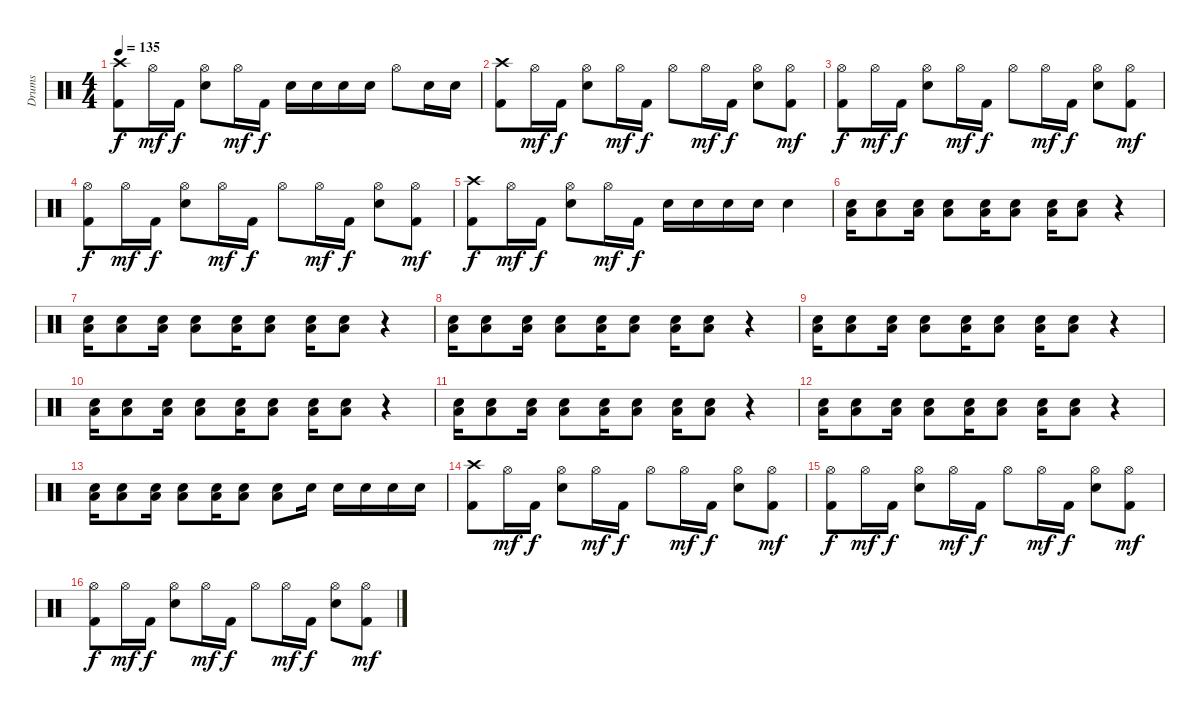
\track ("Drums" "Drums") {instrument percussion}
\staff {score}
\articulation defaults
\ts (4 4)
\tempo 135
\clef neutral
\ks c
("Crash high (hit)" "Kick (hit) 2").8{dy f} "Hi-Hat (open)".16{dy mf} "Kick (hit) 2".16{dy f} ("Hi-Hat (open)" "Electric Snare (hit)").8 "Hi-Hat (open)".16{dy mf} "Kick (hit) 2".16{dy f} "Electric Snare (hit)".16 "Electric Snare (hit)".16 "Electric Snare (hit)".16 "Electric Snare (hit)".16 "Hi-Hat (open)".8 "Electric Snare (hit)".16 "Electric Snare (hit)".16 |
("Crash high (hit)" "Kick (hit) 2").8 "Hi-Hat (open)".16{dy mf} "Kick (hit) 2".16{dy f} ("Hi-Hat (open)" "Electric Snare (hit)").8 "Hi-Hat (open)".16{dy mf} "Kick (hit) 2".16{dy f} "Hi-Hat (open)".8 "Hi-Hat (open)".16{dy mf} "Kick (hit) 2".16{dy f} ("Hi-Hat (open)" "Electric Snare (hit)").8 ("Hi-Hat (open)" "Kick (hit) 2").8{dy mf} |
("Hi-Hat (open)" "Kick (hit) 2").8{dy f} "Hi-Hat (open)".16{dy mf} "Kick (hit) 2".16{dy f} ("Hi-Hat (open)" "Electric Snare (hit)").8 "Hi-Hat (open)".16{dy mf} "Kick (hit) 2".16{dy f} "Hi-Hat (open)".8 "Hi-Hat (open)".16{dy mf} "Kick (hit) 2".16{dy f} ("Hi-Hat (open)" "Electric Snare (hit)").8 ("Hi-Hat (open)" "Kick (hit) 2").8{dy mf} |
("Hi-Hat (open)" "Kick (hit) 2").8{dy f} "Hi-Hat (open)".16{dy mf} "Kick (hit) 2".16{dy f} ("Hi-Hat (open)" "Electric Snare (hit)").8 "Hi-Hat (open)".16{dy mf} "Kick (hit) 2".16{dy f} "Hi-Hat (open)".8 "Hi-Hat (open)".16{dy mf} "Kick (hit) 2".16{dy f} ("Hi-Hat (open)" "Electric Snare (hit)").8 ("Hi-Hat (open)" "Kick (hit) 2").8{dy mf} |
("Crash high (hit)" "Kick (hit) 2").8{dy f} "Hi-Hat (open)".16{dy mf} "Kick (hit) 2".16{dy f} ("Hi-Hat (open)" "Electric Snare (hit)").8 "Hi-Hat (open)".16{dy mf} "Kick (hit) 2".16{dy f} "Electric Snare (hit)".16 "Electric Snare (hit)".16 "Electric Snare (hit)".16 "Electric Snare (hit)".16 "Electric Snare (hit)".4 |
("Electric Snare (hit)" "Low Floor Tom (hit)").16 ("Electric Snare (hit)" "Low Floor Tom (hit)").8 ("Electric Snare (hit)" "Low Floor Tom (hit)").16 ("Electric Snare (hit)" "Low Floor Tom (hit)").8 ("Electric Snare (hit)" "Low Floor Tom (hit)").16 ("Electric Snare (hit)" "Low Floor Tom (hit)").8 ("Electric Snare (hit)" "Low Floor Tom (hit)").16 ("Electric Snare (hit)" "Low Floor Tom (hit)").8 r.4 |
("Electric Snare (hit)" "Low Floor Tom (hit)").16 ("Electric Snare (hit)" "Low Floor Tom (hit)").8 ("Electric Snare (hit)" "Low Floor Tom (hit)").16 ("Electric Snare (hit)" "Low Floor Tom (hit)").8 ("Electric Snare (hit)" "Low Floor Tom (hit)").16 ("Electric Snare (hit)" "Low Floor Tom (hit)").8 ("Electric Snare (hit)" "Low Floor Tom (hit)").16 ("Electric Snare (hit)" "Low Floor Tom (hit)").8 r.4 |
("Electric Snare (hit)" "Low Floor Tom (hit)").16 ("Electric Snare (hit)" "Low Floor Tom (hit)").8 ("Electric Snare (hit)" "Low Floor Tom (hit)").16 ("Electric Snare (hit)" "Low Floor Tom (hit)").8 ("Electric Snare (hit)" "Low Floor Tom (hit)").16 ("Electric Snare (hit)" "Low Floor Tom (hit)").8 ("Electric Snare (hit)" "Low Floor Tom (hit)").16 ("Electric Snare (hit)" "Low Floor Tom (hit)").8 r.4 |
("Electric Snare (hit)" "Low Floor Tom (hit)").16 ("Electric Snare (hit)" "Low Floor Tom (hit)").8 ("Electric Snare (hit)" "Low Floor Tom (hit)").16 ("Electric Snare (hit)" "Low Floor Tom (hit)").8 ("Electric Snare (hit)" "Low Floor Tom (hit)").16 ("Electric Snare (hit)" "Low Floor Tom (hit)").8 ("Electric Snare (hit)" "Low Floor Tom (hit)").16 ("Electric Snare (hit)" "Low Floor Tom (hit)").8 r.4 |
("Electric Snare (hit)" "Low Floor Tom (hit)").16 ("Electric Snare (hit)" "Low Floor Tom (hit)").8 ("Electric Snare (hit)" "Low Floor Tom (hit)").16 ("Electric Snare (hit)" "Low Floor Tom (hit)").8 ("Electric Snare (hit)" "Low Floor Tom (hit)").16 ("Electric Snare (hit)" "Low Floor Tom (hit)").8 ("Electric Snare (hit)" "Low Floor Tom (hit)").16 ("Electric Snare (hit)" "Low Floor Tom (hit)").8 r.4 |
("Electric Snare (hit)" "Low Floor Tom (hit)").16 ("Electric Snare (hit)" "Low Floor Tom (hit)").8 ("Electric Snare (hit)" "Low Floor Tom (hit)").16 ("Electric Snare (hit)" "Low Floor Tom (hit)").8 ("Electric Snare (hit)" "Low Floor Tom (hit)").16 ("Electric Snare (hit)" "Low Floor Tom (hit)").8 ("Electric Snare (hit)" "Low Floor Tom (hit)").16 ("Electric Snare (hit)" "Low Floor Tom (hit)").8 r.4 |
("Electric Snare (hit)" "Low Floor Tom (hit)").16 ("Electric Snare (hit)" "Low Floor Tom (hit)").8 ("Electric Snare (hit)" "Low Floor Tom (hit)").16 ("Electric Snare (hit)" "Low Floor Tom (hit)").8 ("Electric Snare (hit)" "Low Floor Tom (hit)").16 ("Electric Snare (hit)" "Low Floor Tom (hit)").8 ("Electric Snare (hit)" "Low Floor Tom (hit)").16 ("Electric Snare (hit)" "Low Floor Tom (hit)").8 r.4 |
("Electric Snare (hit)" "Low Floor Tom (hit)").16 ("Electric Snare (hit)" "Low Floor Tom (hit)").8 ("Electric Snare (hit)" "Low Floor Tom (hit)").16 ("Electric Snare (hit)" "Low Floor Tom (hit)").8 ("Electric Snare (hit)" "Low Floor Tom (hit)").16 ("Electric Snare (hit)" "Low Floor Tom (hit)").8 ("Electric Snare (hit)" "Low Floor Tom (hit)").8 "Electric Snare (hit)".16 "Electric Snare (hit)".16 "Electric Snare (hit)".16 "Electric Snare (hit)".16 "Electric Snare (hit)".16 |
("Crash high (hit)" "Kick (hit) 2").8 "Hi-Hat (open)".16{dy mf} "Kick (hit) 2".16{dy f} ("Hi-Hat (open)" "Electric Snare (hit)").8 "Hi-Hat (open)".16{dy mf} "Kick (hit) 2".16{dy f} "Hi-Hat (open)".8 "Hi-Hat (open)".16{dy mf} "Kick (hit) 2".16{dy f} ("Hi-Hat (open)" "Electric Snare (hit)").8 ("Hi-Hat (open)" "Kick (hit) 2").8{dy mf} |
("Hi-Hat (open)" "Kick (hit) 2").8{dy f} "Hi-Hat (open)".16{dy mf} "Kick (hit) 2".16{dy f} ("Hi-Hat (open)" "Electric Snare (hit)").8 "Hi-Hat (open)".16{dy mf} "Kick (hit) 2".16{dy f} "Hi-Hat (open)".8 "Hi-Hat (open)".16{dy mf} "Kick (hit) 2".16{dy f} ("Hi-Hat (open)" "Electric Snare (hit)").8 ("Hi-Hat (open)" "Kick (hit) 2").8{dy mf} |
("Hi-Hat (open)" "Kick (hit) 2").8{dy f} "Hi-Hat (open)".16{dy mf} "Kick (hit) 2".16{dy f} ("Hi-Hat (open)" "Electric Snare (hit)").8 "Hi-Hat (open)".16{dy mf} "Kick (hit) 2".16{dy f} "Hi-Hat (open)".8 "Hi-Hat (open)".16{dy mf} "Kick (hit) 2".16{dy f} ("Hi-Hat (open)" "Electric Snare (hit)").8 ("Hi-Hat (open)" "Kick (hit) 2").8{dy mf}
